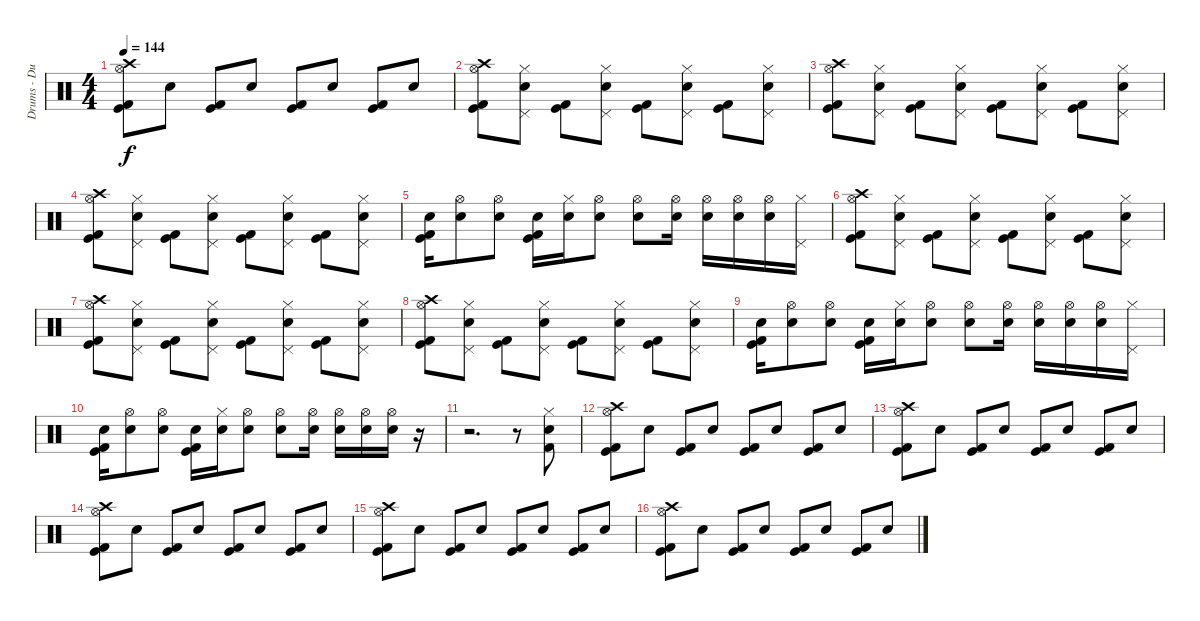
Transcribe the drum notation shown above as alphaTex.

\track ("Drums - Duncan Scott" "Drums - Du") {instrument percussion}
\staff {score}
\articulation defaults
\ts (4 4)
\tempo 144
\clef neutral
\ks c
("Crash high (hit)" "Hi-Hat (open)" "Kick (hit)" "Kick (hit) 2").8{dy f} "Electric Snare (hit)".8 ("Kick (hit)" "Kick (hit) 2").8 "Electric Snare (hit)".8 ("Kick (hit)" "Kick (hit) 2").8 "Electric Snare (hit)".8 ("Kick (hit)" "Kick (hit) 2").8 "Electric Snare (hit)".8 |
("Crash high (hit)" "Hi-Hat (open)" "Kick (hit)" "Kick (hit) 2").8 ("Pedal Hi-Hat (hit)" "Hi-Hat (closed)" "Electric Snare (hit)").8 ("Kick (hit)" "Kick (hit) 2").8 ("Pedal Hi-Hat (hit)" "Hi-Hat (closed)" "Electric Snare (hit)").8 ("Kick (hit)" "Kick (hit) 2").8 ("Pedal Hi-Hat (hit)" "Hi-Hat (closed)" "Electric Snare (hit)").8 ("Kick (hit)" "Kick (hit) 2").8 ("Pedal Hi-Hat (hit)" "Hi-Hat (closed)" "Electric Snare (hit)").8 |
("Crash high (hit)" "Hi-Hat (open)" "Kick (hit)" "Kick (hit) 2").8 ("Pedal Hi-Hat (hit)" "Hi-Hat (closed)" "Electric Snare (hit)").8 ("Kick (hit)" "Kick (hit) 2").8 ("Pedal Hi-Hat (hit)" "Hi-Hat (closed)" "Electric Snare (hit)").8 ("Kick (hit)" "Kick (hit) 2").8 ("Pedal Hi-Hat (hit)" "Hi-Hat (closed)" "Electric Snare (hit)").8 ("Kick (hit)" "Kick (hit) 2").8 ("Pedal Hi-Hat (hit)" "Hi-Hat (closed)" "Electric Snare (hit)").8 |
("Crash high (hit)" "Hi-Hat (open)" "Kick (hit)" "Kick (hit) 2").8 ("Pedal Hi-Hat (hit)" "Hi-Hat (closed)" "Electric Snare (hit)").8 ("Kick (hit)" "Kick (hit) 2").8 ("Pedal Hi-Hat (hit)" "Hi-Hat (closed)" "Electric Snare (hit)").8 ("Kick (hit)" "Kick (hit) 2").8 ("Pedal Hi-Hat (hit)" "Hi-Hat (closed)" "Electric Snare (hit)").8 ("Kick (hit)" "Kick (hit) 2").8 ("Pedal Hi-Hat (hit)" "Hi-Hat (closed)" "Electric Snare (hit)").8 |
("Electric Snare (hit)" "Kick (hit) 2" "Kick (hit)").16 ("Electric Snare (hit)" "Hi-Hat (open)").8 ("Electric Snare (hit)" "Hi-Hat (open)").8 ("Electric Snare (hit)" "Kick (hit) 2" "Kick (hit)").16 ("Electric Snare (hit)" "Hi-Hat (closed)").16 ("Electric Snare (hit)" "Hi-Hat (open)").8 ("Electric Snare (hit)" "Hi-Hat (open)").8 ("Electric Snare (hit)" "Hi-Hat (open)").16 ("Electric Snare (hit)" "Hi-Hat (open)").16 ("Electric Snare (hit)" "Hi-Hat (open)").16 ("Electric Snare (hit)" "Hi-Hat (open)").16 ("Hi-Hat (closed)" "Pedal Hi-Hat (hit)").16 |
("Crash high (hit)" "Hi-Hat (open)" "Kick (hit)" "Kick (hit) 2").8 ("Pedal Hi-Hat (hit)" "Hi-Hat (closed)" "Electric Snare (hit)").8 ("Kick (hit)" "Kick (hit) 2").8 ("Pedal Hi-Hat (hit)" "Hi-Hat (closed)" "Electric Snare (hit)").8 ("Kick (hit)" "Kick (hit) 2").8 ("Pedal Hi-Hat (hit)" "Hi-Hat (closed)" "Electric Snare (hit)").8 ("Kick (hit)" "Kick (hit) 2").8 ("Pedal Hi-Hat (hit)" "Hi-Hat (closed)" "Electric Snare (hit)").8 |
("Crash high (hit)" "Hi-Hat (open)" "Kick (hit)" "Kick (hit) 2").8 ("Pedal Hi-Hat (hit)" "Hi-Hat (closed)" "Electric Snare (hit)").8 ("Kick (hit)" "Kick (hit) 2").8 ("Pedal Hi-Hat (hit)" "Hi-Hat (closed)" "Electric Snare (hit)").8 ("Kick (hit)" "Kick (hit) 2").8 ("Pedal Hi-Hat (hit)" "Hi-Hat (closed)" "Electric Snare (hit)").8 ("Kick (hit)" "Kick (hit) 2").8 ("Pedal Hi-Hat (hit)" "Hi-Hat (closed)" "Electric Snare (hit)").8 |
("Crash high (hit)" "Hi-Hat (open)" "Kick (hit)" "Kick (hit) 2").8 ("Pedal Hi-Hat (hit)" "Hi-Hat (closed)" "Electric Snare (hit)").8 ("Kick (hit)" "Kick (hit) 2").8 ("Pedal Hi-Hat (hit)" "Hi-Hat (closed)" "Electric Snare (hit)").8 ("Kick (hit)" "Kick (hit) 2").8 ("Pedal Hi-Hat (hit)" "Hi-Hat (closed)" "Electric Snare (hit)").8 ("Kick (hit)" "Kick (hit) 2").8 ("Pedal Hi-Hat (hit)" "Hi-Hat (closed)" "Electric Snare (hit)").8 |
("Electric Snare (hit)" "Kick (hit) 2" "Kick (hit)").16 ("Electric Snare (hit)" "Hi-Hat (open)").8 ("Electric Snare (hit)" "Hi-Hat (open)").8 ("Electric Snare (hit)" "Kick (hit) 2" "Kick (hit)").16 ("Electric Snare (hit)" "Hi-Hat (closed)").16 ("Electric Snare (hit)" "Hi-Hat (open)").8 ("Electric Snare (hit)" "Hi-Hat (open)").8 ("Electric Snare (hit)" "Hi-Hat (open)").16 ("Electric Snare (hit)" "Hi-Hat (open)").16 ("Electric Snare (hit)" "Hi-Hat (open)").16 ("Electric Snare (hit)" "Hi-Hat (open)").16 ("Hi-Hat (closed)" "Pedal Hi-Hat (hit)").16 |
("Electric Snare (hit)" "Kick (hit) 2" "Kick (hit)").16 ("Electric Snare (hit)" "Hi-Hat (open)").8 ("Electric Snare (hit)" "Hi-Hat (open)").8 ("Electric Snare (hit)" "Kick (hit) 2" "Kick (hit)").16 ("Electric Snare (hit)" "Hi-Hat (closed)").16 ("Electric Snare (hit)" "Hi-Hat (open)").8 ("Electric Snare (hit)" "Hi-Hat (open)").8 ("Electric Snare (hit)" "Hi-Hat (open)").16 ("Electric Snare (hit)" "Hi-Hat (open)").16 ("Electric Snare (hit)" "Hi-Hat (open)").16 ("Electric Snare (hit)" "Hi-Hat (open)").16 r.16 |
r.2{d} r.8 ("Electric Snare (hit)" "Hi-Hat (closed)" "Kick (hit) 2").8 |
("Crash high (hit)" "Hi-Hat (open)" "Kick (hit)" "Kick (hit) 2").8 "Electric Snare (hit)".8 ("Kick (hit)" "Kick (hit) 2").8 "Electric Snare (hit)".8 ("Kick (hit)" "Kick (hit) 2").8 "Electric Snare (hit)".8 ("Kick (hit)" "Kick (hit) 2").8 "Electric Snare (hit)".8 |
("Crash high (hit)" "Hi-Hat (open)" "Kick (hit)" "Kick (hit) 2").8 "Electric Snare (hit)".8 ("Kick (hit)" "Kick (hit) 2").8 "Electric Snare (hit)".8 ("Kick (hit)" "Kick (hit) 2").8 "Electric Snare (hit)".8 ("Kick (hit)" "Kick (hit) 2").8 "Electric Snare (hit)".8 |
("Crash high (hit)" "Hi-Hat (open)" "Kick (hit)" "Kick (hit) 2").8 "Electric Snare (hit)".8 ("Kick (hit)" "Kick (hit) 2").8 "Electric Snare (hit)".8 ("Kick (hit)" "Kick (hit) 2").8 "Electric Snare (hit)".8 ("Kick (hit)" "Kick (hit) 2").8 "Electric Snare (hit)".8 |
("Crash high (hit)" "Hi-Hat (open)" "Kick (hit)" "Kick (hit) 2").8 "Electric Snare (hit)".8 ("Kick (hit)" "Kick (hit) 2").8 "Electric Snare (hit)".8 ("Kick (hit)" "Kick (hit) 2").8 "Electric Snare (hit)".8 ("Kick (hit)" "Kick (hit) 2").8 "Electric Snare (hit)".8 |
("Crash high (hit)" "Hi-Hat (open)" "Kick (hit)" "Kick (hit) 2").8 "Electric Snare (hit)".8 ("Kick (hit)" "Kick (hit) 2").8 "Electric Snare (hit)".8 ("Kick (hit)" "Kick (hit) 2").8 "Electric Snare (hit)".8 ("Kick (hit)" "Kick (hit) 2").8 "Electric Snare (hit)".8
